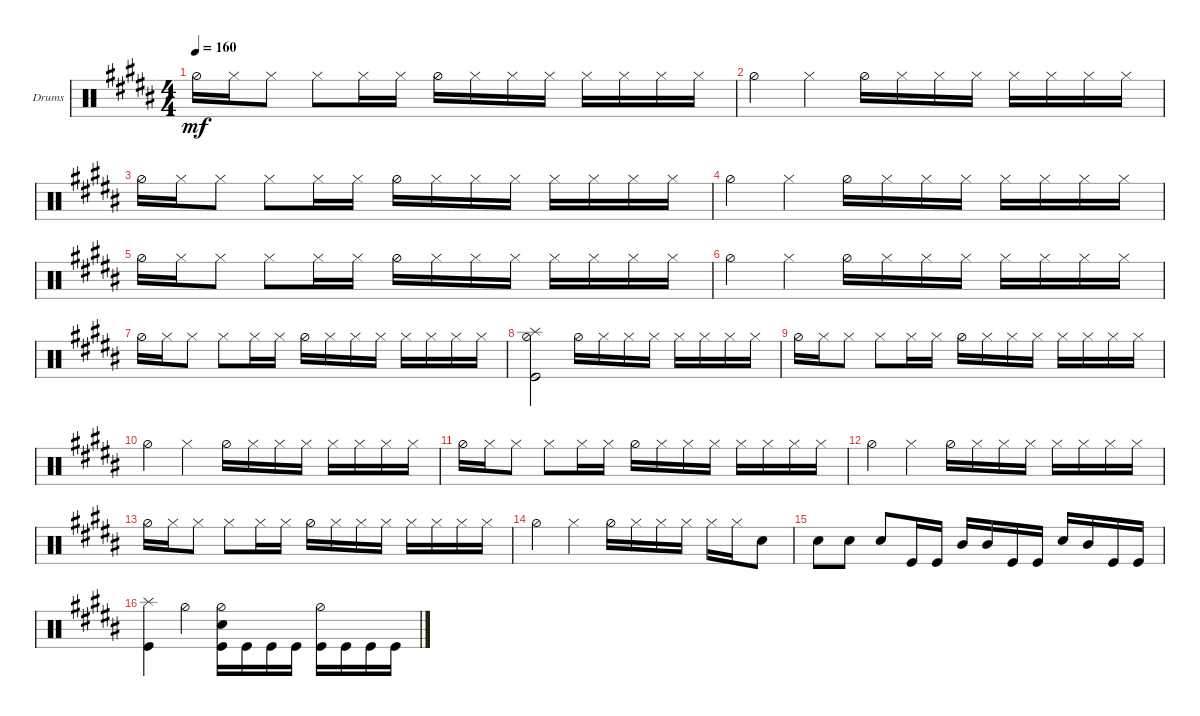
\defaultSystemsLayout 4
\bracketExtendMode groupsimilarinstruments
\firstSystemTrackNameOrientation horizontal
\otherSystemsTrackNameOrientation horizontal
\track ("Drumkit" "Drums") {instrument percussion}
\staff {score}
\articulation defaults
\ts (4 4)
\tempo 160
\clef neutral
\scale
0.333333
\ks b "Hi-Hat (half)".16{dy mf} "Hi-Hat (closed)".16 "Hi-Hat (closed)".8 "Hi-Hat (closed)".8 "Hi-Hat (closed)".16 "Hi-Hat (closed)".16 "Hi-Hat (half)".16 "Hi-Hat (closed)".16 "Hi-Hat (closed)".16 "Hi-Hat (closed)".16 "Hi-Hat (closed)".16 "Hi-Hat (closed)".16 "Hi-Hat (closed)".16 "Hi-Hat (closed)".16
|
\scale
0.333333 "Hi-Hat (half)".4 "Hi-Hat (closed)".4 "Hi-Hat (half)".16 "Hi-Hat (closed)".16 "Hi-Hat (closed)".16 "Hi-Hat (closed)".16 "Hi-Hat (closed)".16 "Hi-Hat (closed)".16 "Hi-Hat (closed)".16 "Hi-Hat (closed)".16 |
\scale
0.333333 "Hi-Hat (half)".16 "Hi-Hat (closed)".16 "Hi-Hat (closed)".8 "Hi-Hat (closed)".8 "Hi-Hat (closed)".16 "Hi-Hat (closed)".16 "Hi-Hat (half)".16 "Hi-Hat (closed)".16 "Hi-Hat (closed)".16 "Hi-Hat (closed)".16 "Hi-Hat (closed)".16 "Hi-Hat (closed)".16 "Hi-Hat (closed)".16 "Hi-Hat (closed)".16 |
\scale
0.333333 "Hi-Hat (half)".4 "Hi-Hat (closed)".4 "Hi-Hat (half)".16 "Hi-Hat (closed)".16 "Hi-Hat (closed)".16 "Hi-Hat (closed)".16 "Hi-Hat (closed)".16 "Hi-Hat (closed)".16 "Hi-Hat (closed)".16 "Hi-Hat (closed)".16 |
\scale
0.333333 "Hi-Hat (half)".16 "Hi-Hat (closed)".16 "Hi-Hat (closed)".8 "Hi-Hat (closed)".8 "Hi-Hat (closed)".16 "Hi-Hat (closed)".16 "Hi-Hat (half)".16 "Hi-Hat (closed)".16 "Hi-Hat (closed)".16 "Hi-Hat (closed)".16 "Hi-Hat (closed)".16 "Hi-Hat (closed)".16 "Hi-Hat (closed)".16 "Hi-Hat (closed)".16 |
\scale
0.333333 "Hi-Hat (half)".4 "Hi-Hat (closed)".4 "Hi-Hat (half)".16 "Hi-Hat (closed)".16 "Hi-Hat (closed)".16 "Hi-Hat (closed)".16 "Hi-Hat (closed)".16 "Hi-Hat (closed)".16 "Hi-Hat (closed)".16 "Hi-Hat (closed)".16 |
\scale
0.333333 "Hi-Hat (half)".16 "Hi-Hat (closed)".16 "Hi-Hat (closed)".8 "Hi-Hat (closed)".8 "Hi-Hat (closed)".16 "Hi-Hat (closed)".16 "Hi-Hat (half)".16 "Hi-Hat (closed)".16 "Hi-Hat (closed)".16 "Hi-Hat (closed)".16 "Hi-Hat (closed)".16 "Hi-Hat (closed)".16 "Hi-Hat (closed)".16 "Hi-Hat (closed)".16 |
\scale
0.333333 ("Hi-Hat (half)" "Kick (hit)" "Splash (hit)").2 "Hi-Hat (half)".16 "Hi-Hat (closed)".16 "Hi-Hat (closed)".16 "Hi-Hat (closed)".16 "Hi-Hat (closed)".16 "Hi-Hat (closed)".16 "Hi-Hat (closed)".16 "Hi-Hat (closed)".16 |
\scale
0.333333 "Hi-Hat (half)".16 "Hi-Hat (closed)".16 "Hi-Hat (closed)".8 "Hi-Hat (closed)".8 "Hi-Hat (closed)".16 "Hi-Hat (closed)".16 "Hi-Hat (half)".16 "Hi-Hat (closed)".16 "Hi-Hat (closed)".16 "Hi-Hat (closed)".16 "Hi-Hat (closed)".16 "Hi-Hat (closed)".16 "Hi-Hat (closed)".16 "Hi-Hat (closed)".16 |
\scale
0.333333 "Hi-Hat (half)".4 "Hi-Hat (closed)".4 "Hi-Hat (half)".16 "Hi-Hat (closed)".16 "Hi-Hat (closed)".16 "Hi-Hat (closed)".16 "Hi-Hat (closed)".16 "Hi-Hat (closed)".16 "Hi-Hat (closed)".16 "Hi-Hat (closed)".16 |
\scale
0.333333 "Hi-Hat (half)".16 "Hi-Hat (closed)".16 "Hi-Hat (closed)".8 "Hi-Hat (closed)".8 "Hi-Hat (closed)".16 "Hi-Hat (closed)".16 "Hi-Hat (half)".16 "Hi-Hat (closed)".16 "Hi-Hat (closed)".16 "Hi-Hat (closed)".16 "Hi-Hat (closed)".16 "Hi-Hat (closed)".16 "Hi-Hat (closed)".16 "Hi-Hat (closed)".16 |
\scale
0.333333 "Hi-Hat (half)".4 "Hi-Hat (closed)".4 "Hi-Hat (half)".16 "Hi-Hat (closed)".16 "Hi-Hat (closed)".16 "Hi-Hat (closed)".16 "Hi-Hat (closed)".16 "Hi-Hat (closed)".16 "Hi-Hat (closed)".16 "Hi-Hat (closed)".16 |
\scale
0.333333 "Hi-Hat (half)".16 "Hi-Hat (closed)".16 "Hi-Hat (closed)".8 "Hi-Hat (closed)".8 "Hi-Hat (closed)".16 "Hi-Hat (closed)".16 "Hi-Hat (half)".16 "Hi-Hat (closed)".16 "Hi-Hat (closed)".16 "Hi-Hat (closed)".16 "Hi-Hat (closed)".16 "Hi-Hat (closed)".16 "Hi-Hat (closed)".16 "Hi-Hat (closed)".16 |
\scale
0.333333 "Hi-Hat (half)".4 "Hi-Hat (closed)".4 "Hi-Hat (half)".16 "Hi-Hat (closed)".16 "Hi-Hat (closed)".16 "Hi-Hat (closed)".16 "Hi-Hat (closed)".16 "Hi-Hat (closed)".16 "Snare (hit) 2".8 |
\scale
0.333333 "Snare (hit) 2".8 "Snare (hit) 2".8 "Snare (hit) 2".8 "Kick (hit)".16 "Kick (hit)".16 "Mid Tom (hit)".16 "Mid Tom (hit)".16 "Kick (hit)".16 "Kick (hit)".16 "Snare (hit) 2".16 "Mid Tom (hit)".16 "Kick (hit)".16 "Kick (hit)".16 |
\scale
0.333333 ("Kick (hit)" "Splash (hit)").4 "Hi-Hat (half)".4 ("Kick (hit)" "Snare (hit) 2" "Hi-Hat (half)").16 "Kick (hit)".16 "Kick (hit)".16 "Kick (hit)".16 ("Kick (hit)" "Hi-Hat (half)").16 "Kick (hit)".16 "Kick (hit)".16 "Kick (hit)".16
